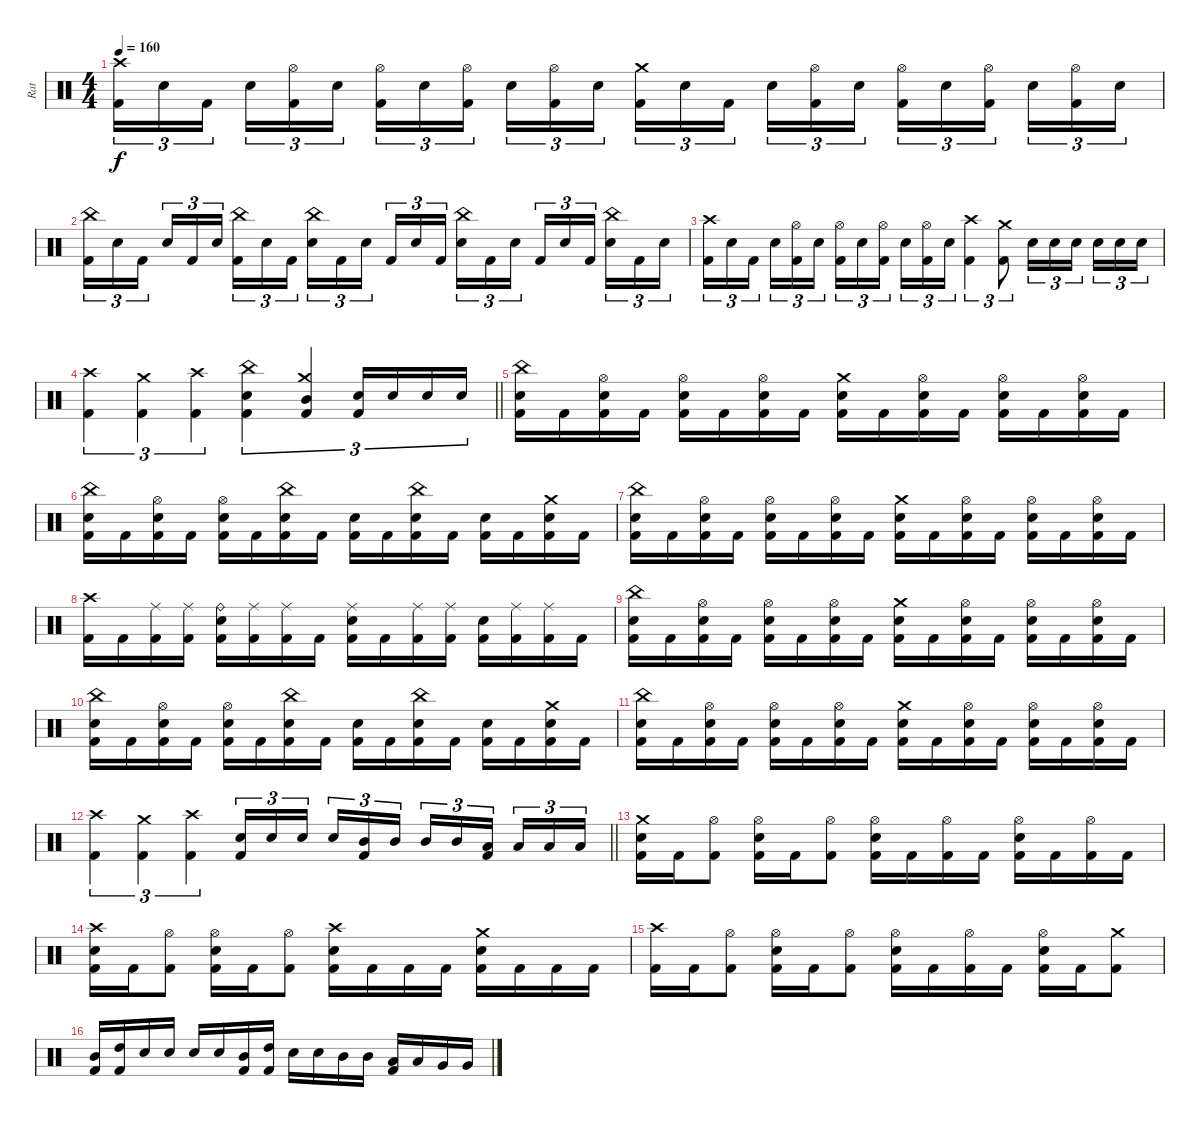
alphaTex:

\track ("Rat" "Rat") {instrument percussion}
\staff {score}
\articulation defaults
\ts (4 4)
\tempo 160
\clef neutral
\ks c
("Crash high (hit)" "Kick (hit) 2").16{tu (3 2) dy f} "Electric Snare (hit)".16{tu (3 2)} "Kick (hit) 2".16{tu (3 2) beam splitsecondary} "Electric Snare (hit)".16{tu (3 2)} ("Hi-Hat (open)" "Kick (hit) 2").16{tu (3 2)} "Electric Snare (hit)".16{tu (3 2)} ("Hi-Hat (open)" "Kick (hit) 2").16{tu (3 2)} "Electric Snare (hit)".16{tu (3 2)} ("Hi-Hat (open)" "Kick (hit) 2").16{tu (3 2) beam splitsecondary} "Electric Snare (hit)".16{tu (3 2)} ("Hi-Hat (open)" "Kick (hit) 2").16{tu (3 2)} "Electric Snare (hit)".16{tu (3 2)} ("Crash medium (hit)" "Kick (hit) 2").16{tu (3 2)} "Electric Snare (hit)".16{tu (3 2)} "Kick (hit) 2".16{tu (3 2) beam splitsecondary} "Electric Snare (hit)".16{tu (3 2)} ("Hi-Hat (open)" "Kick (hit) 2").16{tu (3 2)} "Electric Snare (hit)".16{tu (3 2)} ("Hi-Hat (open)" "Kick (hit) 2").16{tu (3 2)} "Electric Snare (hit)".16{tu (3 2)} ("Hi-Hat (open)" "Kick (hit) 2").16{tu (3 2) beam splitsecondary} "Electric Snare (hit)".16{tu (3 2)} ("Hi-Hat (open)" "Kick (hit) 2").16{tu (3 2)} "Electric Snare (hit)".16{tu (3 2)} |
("China (hit)" "Kick (hit) 2").16{tu (3 2)} "Electric Snare (hit)".16{tu (3 2)} "Kick (hit) 2".16{tu (3 2) beam splitsecondary} "Electric Snare (hit)".16{tu (3 2)} "Kick (hit) 2".16{tu (3 2)} "Electric Snare (hit)".16{tu (3 2)} ("China (hit)" "Kick (hit) 2").16{tu (3 2)} "Electric Snare (hit)".16{tu (3 2)} "Kick (hit) 2".16{tu (3 2) beam splitsecondary} ("China (hit)" "Electric Snare (hit)").16{tu (3 2)} "Kick (hit) 2".16{tu (3 2)} "Electric Snare (hit)".16{tu (3 2)} "Kick (hit) 2".16{tu (3 2)} "Electric Snare (hit)".16{tu (3 2)} "Kick (hit) 2".16{tu (3 2) beam splitsecondary} ("China (hit)" "Electric Snare (hit)").16{tu (3 2)} "Kick (hit) 2".16{tu (3 2)} "Electric Snare (hit)".16{tu (3 2)} "Kick (hit) 2".16{tu (3 2)} "Electric Snare (hit)".16{tu (3 2)} "Kick (hit) 2".16{tu (3 2) beam splitsecondary} ("China (hit)" "Electric Snare (hit)").16{tu (3 2)} "Kick (hit) 2".16{tu (3 2)} "Electric Snare (hit)".16{tu (3 2)} |
("Crash high (hit)" "Kick (hit) 2").16{tu (3 2)} "Electric Snare (hit)".16{tu (3 2)} "Kick (hit) 2".16{tu (3 2) beam splitsecondary} "Electric Snare (hit)".16{tu (3 2)} ("Hi-Hat (open)" "Kick (hit) 2").16{tu (3 2)} "Electric Snare (hit)".16{tu (3 2)} ("Hi-Hat (open)" "Kick (hit) 2").16{tu (3 2)} "Electric Snare (hit)".16{tu (3 2)} ("Hi-Hat (open)" "Kick (hit) 2").16{tu (3 2) beam splitsecondary} "Electric Snare (hit)".16{tu (3 2)} ("Hi-Hat (open)" "Kick (hit) 2").16{tu (3 2)} "Electric Snare (hit)".16{tu (3 2)} ("Crash high (hit)" "Kick (hit) 2").4{tu (3 2)} ("Crash medium (hit)" "Kick (hit) 2").8{tu (3 2)} "Electric Snare (hit)".16{tu (3 2)} "Electric Snare (hit)".16{tu (3 2)} "Electric Snare (hit)".16{tu (3 2) beam splitsecondary} "Electric Snare (hit)".16{tu (3 2)} "Electric Snare (hit)".16{tu (3 2)} "Electric Snare (hit)".16{tu (3 2)} |
\barLineRight lightlight
("Crash high (hit)" "Kick (hit) 2").4{tu (3 2)} ("Crash medium (hit)" "Kick (hit) 2").4{tu (3 2)} ("Crash high (hit)" "Kick (hit) 2").4{tu (3 2)} ("China (hit)" "Electric Snare (hit)" "Kick (hit) 2").4{tu (3 2)} ("Crash medium (hit)" "Mid Tom (hit)" "Kick (hit) 2").4{tu (3 2)} ("Electric Snare (hit)" "Kick (hit) 2").16{tu (3 2)} "Electric Snare (hit)".16{tu (3 2)} "Electric Snare (hit)".16{tu (3 2)} "Electric Snare (hit)".16{tu (3 2)} |
("China (hit)" "Electric Snare (hit)" "Kick (hit) 2").16 "Kick (hit) 2".16 ("Hi-Hat (open)" "Electric Snare (hit)" "Kick (hit) 2").16 "Kick (hit) 2".16 ("Hi-Hat (open)" "Electric Snare (hit)" "Kick (hit) 2").16 "Kick (hit) 2".16 ("Hi-Hat (open)" "Electric Snare (hit)" "Kick (hit) 2").16 "Kick (hit) 2".16 ("Crash medium (hit)" "Electric Snare (hit)" "Kick (hit) 2").16 "Kick (hit) 2".16 ("Hi-Hat (open)" "Electric Snare (hit)" "Kick (hit) 2").16 "Kick (hit) 2".16 ("Hi-Hat (open)" "Electric Snare (hit)" "Kick (hit) 2").16 "Kick (hit) 2".16 ("Hi-Hat (open)" "Electric Snare (hit)" "Kick (hit) 2").16 "Kick (hit) 2".16 |
("China (hit)" "Electric Snare (hit)" "Kick (hit) 2").16 "Kick (hit) 2".16 ("Hi-Hat (open)" "Electric Snare (hit)" "Kick (hit) 2").16 "Kick (hit) 2".16 ("Hi-Hat (open)" "Electric Snare (hit)" "Kick (hit) 2").16 "Kick (hit) 2".16 ("China (hit)" "Electric Snare (hit)" "Kick (hit) 2").16 "Kick (hit) 2".16 ("Electric Snare (hit)" "Kick (hit) 2").16 "Kick (hit) 2".16 ("China (hit)" "Electric Snare (hit)" "Kick (hit) 2").16 "Kick (hit) 2".16 ("Electric Snare (hit)" "Kick (hit) 2").16 "Kick (hit) 2".16 ("Crash medium (hit)" "Electric Snare (hit)" "Kick (hit) 2").16 "Kick (hit) 2".16 |
("China (hit)" "Electric Snare (hit)" "Kick (hit) 2").16 "Kick (hit) 2".16 ("Hi-Hat (open)" "Electric Snare (hit)" "Kick (hit) 2").16 "Kick (hit) 2".16 ("Hi-Hat (open)" "Electric Snare (hit)" "Kick (hit) 2").16 "Kick (hit) 2".16 ("Hi-Hat (open)" "Electric Snare (hit)" "Kick (hit) 2").16 "Kick (hit) 2".16 ("Crash medium (hit)" "Electric Snare (hit)" "Kick (hit) 2").16 "Kick (hit) 2".16 ("Hi-Hat (open)" "Electric Snare (hit)" "Kick (hit) 2").16 "Kick (hit) 2".16 ("Hi-Hat (open)" "Electric Snare (hit)" "Kick (hit) 2").16 "Kick (hit) 2".16 ("Hi-Hat (open)" "Electric Snare (hit)" "Kick (hit) 2").16 "Kick (hit) 2".16 |
("Crash high (hit)" "Kick (hit) 2").16 "Kick (hit) 2".16 ("Ride (middle)" "Kick (hit) 2").16 ("Ride (middle)" "Kick (hit) 2").16 ("Ride (bell)" "Electric Snare (hit)" "Kick (hit) 2").16 ("Ride (middle)" "Kick (hit) 2").16 ("Ride (middle)" "Kick (hit) 2").16 "Kick (hit) 2".16 ("Ride (middle)" "Electric Snare (hit)" "Kick (hit) 2").16 "Kick (hit) 2".16 ("Ride (middle)" "Kick (hit) 2").16 ("Ride (middle)" "Kick (hit) 2").16 ("Electric Snare (hit)" "Kick (hit) 2").16 ("Ride (middle)" "Kick (hit) 2").16 ("Ride (middle)" "Kick (hit) 2").16 "Kick (hit) 2".16 |
("China (hit)" "Electric Snare (hit)" "Kick (hit) 2").16 "Kick (hit) 2".16 ("Hi-Hat (open)" "Electric Snare (hit)" "Kick (hit) 2").16 "Kick (hit) 2".16 ("Hi-Hat (open)" "Electric Snare (hit)" "Kick (hit) 2").16 "Kick (hit) 2".16 ("Hi-Hat (open)" "Electric Snare (hit)" "Kick (hit) 2").16 "Kick (hit) 2".16 ("Crash medium (hit)" "Electric Snare (hit)" "Kick (hit) 2").16 "Kick (hit) 2".16 ("Hi-Hat (open)" "Electric Snare (hit)" "Kick (hit) 2").16 "Kick (hit) 2".16 ("Hi-Hat (open)" "Electric Snare (hit)" "Kick (hit) 2").16 "Kick (hit) 2".16 ("Hi-Hat (open)" "Electric Snare (hit)" "Kick (hit) 2").16 "Kick (hit) 2".16 |
("China (hit)" "Electric Snare (hit)" "Kick (hit) 2").16 "Kick (hit) 2".16 ("Hi-Hat (open)" "Electric Snare (hit)" "Kick (hit) 2").16 "Kick (hit) 2".16 ("Hi-Hat (open)" "Electric Snare (hit)" "Kick (hit) 2").16 "Kick (hit) 2".16 ("China (hit)" "Electric Snare (hit)" "Kick (hit) 2").16 "Kick (hit) 2".16 ("Electric Snare (hit)" "Kick (hit) 2").16 "Kick (hit) 2".16 ("China (hit)" "Electric Snare (hit)" "Kick (hit) 2").16 "Kick (hit) 2".16 ("Electric Snare (hit)" "Kick (hit) 2").16 "Kick (hit) 2".16 ("Crash medium (hit)" "Electric Snare (hit)" "Kick (hit) 2").16 "Kick (hit) 2".16 |
("China (hit)" "Electric Snare (hit)" "Kick (hit) 2").16 "Kick (hit) 2".16 ("Hi-Hat (open)" "Electric Snare (hit)" "Kick (hit) 2").16 "Kick (hit) 2".16 ("Hi-Hat (open)" "Electric Snare (hit)" "Kick (hit) 2").16 "Kick (hit) 2".16 ("Hi-Hat (open)" "Electric Snare (hit)" "Kick (hit) 2").16 "Kick (hit) 2".16 ("Crash medium (hit)" "Electric Snare (hit)" "Kick (hit) 2").16 "Kick (hit) 2".16 ("Hi-Hat (open)" "Electric Snare (hit)" "Kick (hit) 2").16 "Kick (hit) 2".16 ("Hi-Hat (open)" "Electric Snare (hit)" "Kick (hit) 2").16 "Kick (hit) 2".16 ("Hi-Hat (open)" "Electric Snare (hit)" "Kick (hit) 2").16 "Kick (hit) 2".16 |
\barLineRight lightlight
("Crash high (hit)" "Kick (hit) 2").4{tu (3 2)} ("Crash medium (hit)" "Kick (hit) 2").4{tu (3 2)} ("Crash high (hit)" "Kick (hit) 2").4{tu (3 2)} ("Electric Snare (hit)" "Kick (hit) 2").16{tu (3 2)} "Electric Snare (hit)".16{tu (3 2)} "Electric Snare (hit)".16{tu (3 2) beam splitsecondary} "Electric Snare (hit)".16{tu (3 2)} ("Mid Tom (hit)" "Kick (hit) 2").16{tu (3 2)} "Mid Tom (hit)".16{tu (3 2)} "Mid Tom (hit)".16{tu (3 2)} "Mid Tom (hit)".16{tu (3 2)} ("Low Tom (hit)" "Kick (hit) 2").16{tu (3 2) beam splitsecondary} "Low Tom (hit)".16{tu (3 2)} "Low Tom (hit)".16{tu (3 2)} "Low Tom (hit)".16{tu (3 2)} |
("Crash medium (hit)" "Electric Snare (hit)" "Kick (hit) 2").16 "Kick (hit) 2".16 ("Hi-Hat (open)" "Kick (hit) 2").8 ("Hi-Hat (open)" "Electric Snare (hit)" "Kick (hit) 2").16 "Kick (hit) 2".16 ("Hi-Hat (open)" "Kick (hit) 2").8 ("Hi-Hat (open)" "Electric Snare (hit)" "Kick (hit) 2").16 "Kick (hit) 2".16 ("Hi-Hat (open)" "Kick (hit) 2").16 "Kick (hit) 2".16 ("Hi-Hat (open)" "Electric Snare (hit)" "Kick (hit) 2").16 "Kick (hit) 2".16 ("Hi-Hat (open)" "Kick (hit) 2").16 "Kick (hit) 2".16 |
("Crash high (hit)" "Electric Snare (hit)" "Kick (hit) 2").16 "Kick (hit) 2".16 ("Hi-Hat (open)" "Kick (hit) 2").8 ("Hi-Hat (open)" "Electric Snare (hit)" "Kick (hit) 2").16 "Kick (hit) 2".16 ("Hi-Hat (open)" "Kick (hit) 2").8 ("Crash high (hit)" "Electric Snare (hit)" "Kick (hit) 2").16 "Kick (hit) 2".16 "Kick (hit) 2".16 "Kick (hit) 2".16 ("Crash medium (hit)" "Electric Snare (hit)" "Kick (hit) 2").16 "Kick (hit) 2".16 "Kick (hit) 2".16 "Kick (hit) 2".16 |
("Crash high (hit)" "Kick (hit) 2").16 "Kick (hit) 2".16 ("Hi-Hat (open)" "Kick (hit) 2").8 ("Hi-Hat (open)" "Electric Snare (hit)" "Kick (hit) 2").16 "Kick (hit) 2".16 ("Hi-Hat (open)" "Kick (hit) 2").8 ("Hi-Hat (open)" "Electric Snare (hit)" "Kick (hit) 2").16 "Kick (hit) 2".16 ("Hi-Hat (open)" "Kick (hit) 2").16 "Kick (hit) 2".16 ("Hi-Hat (open)" "Electric Snare (hit)" "Kick (hit) 2").16 "Kick (hit) 2".16 ("Crash medium (hit)" "Kick (hit) 2").8 |
("Mid Tom (hit)" "Kick (hit) 2").16 ("High Tom (hit)" "Kick (hit) 2").16 "Electric Snare (hit)".16 "Electric Snare (hit)".16 "Electric Snare (hit)".16 "Electric Snare (hit)".16 ("Mid Tom (hit)" "Kick (hit) 2").16 ("High Tom (hit)" "Kick (hit) 2").16 "Electric Snare (hit)".16 "Electric Snare (hit)".16 "Mid Tom (hit)".16 "Mid Tom (hit)".16 ("Low Tom (hit)" "Kick (hit) 2").16 "Low Tom (hit)".16 "Very Low Tom (hit)".16 "Very Low Tom (hit)".16
